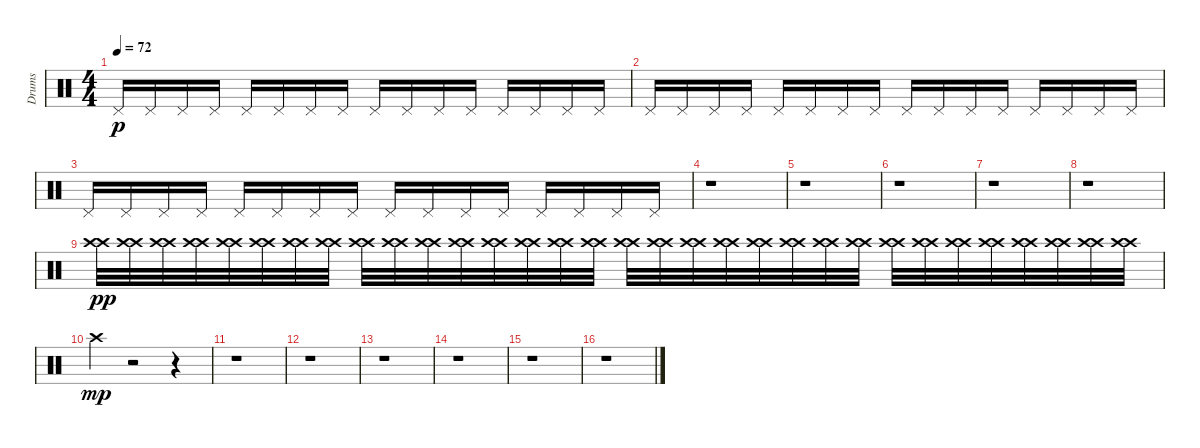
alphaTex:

\track ("Drums" "Drums") {instrument percussion}
\staff {score}
\articulation defaults
\ts (4 4)
\tempo 72
\clef neutral
\ks c "Pedal Hi-Hat (hit)".16{dy p} "Pedal Hi-Hat (hit)".16 "Pedal Hi-Hat (hit)".16 "Pedal Hi-Hat (hit)".16 "Pedal Hi-Hat (hit)".16 "Pedal Hi-Hat (hit)".16 "Pedal Hi-Hat (hit)".16 "Pedal Hi-Hat (hit)".16 "Pedal Hi-Hat (hit)".16 "Pedal Hi-Hat (hit)".16 "Pedal Hi-Hat (hit)".16 "Pedal Hi-Hat (hit)".16 "Pedal Hi-Hat (hit)".16 "Pedal Hi-Hat (hit)".16 "Pedal Hi-Hat (hit)".16 "Pedal Hi-Hat (hit)".16
|
"Pedal Hi-Hat (hit)".16 "Pedal Hi-Hat (hit)".16 "Pedal Hi-Hat (hit)".16 "Pedal Hi-Hat (hit)".16 "Pedal Hi-Hat (hit)".16 "Pedal Hi-Hat (hit)".16 "Pedal Hi-Hat (hit)".16 "Pedal Hi-Hat (hit)".16 "Pedal Hi-Hat (hit)".16 "Pedal Hi-Hat (hit)".16 "Pedal Hi-Hat (hit)".16 "Pedal Hi-Hat (hit)".16 "Pedal Hi-Hat (hit)".16 "Pedal Hi-Hat (hit)".16 "Pedal Hi-Hat (hit)".16 "Pedal Hi-Hat (hit)".16 |
"Pedal Hi-Hat (hit)".16 "Pedal Hi-Hat (hit)".16 "Pedal Hi-Hat (hit)".16 "Pedal Hi-Hat (hit)".16 "Pedal Hi-Hat (hit)".16 "Pedal Hi-Hat (hit)".16 "Pedal Hi-Hat (hit)".16 "Pedal Hi-Hat (hit)".16 "Pedal Hi-Hat (hit)".16 "Pedal Hi-Hat (hit)".16 "Pedal Hi-Hat (hit)".16 "Pedal Hi-Hat (hit)".16 "Pedal Hi-Hat (hit)".16 "Pedal Hi-Hat (hit)".16 "Pedal Hi-Hat (hit)".16 "Pedal Hi-Hat (hit)".16 |
r.1 |
r.1 |
r.1 |
r.1 |
r.1 |
("Crash high (hit)" "Crash high (hit)").32{dy pp} ("Crash high (hit)" "Crash high (hit)").32 ("Crash high (hit)" "Crash high (hit)").32 ("Crash high (hit)" "Crash high (hit)").32 ("Crash high (hit)" "Crash high (hit)").32 ("Crash high (hit)" "Crash high (hit)").32 ("Crash high (hit)" "Crash high (hit)").32 ("Crash high (hit)" "Crash high (hit)").32 ("Crash high (hit)" "Crash high (hit)").32 ("Crash high (hit)" "Crash high (hit)").32 ("Crash high (hit)" "Crash high (hit)").32 ("Crash high (hit)" "Crash high (hit)").32 ("Crash high (hit)" "Crash high (hit)").32 ("Crash high (hit)" "Crash high (hit)").32 ("Crash high (hit)" "Crash high (hit)").32 ("Crash high (hit)" "Crash high (hit)").32 ("Crash high (hit)" "Crash high (hit)").32 ("Crash high (hit)" "Crash high (hit)").32 ("Crash high (hit)" "Crash high (hit)").32 ("Crash high (hit)" "Crash high (hit)").32 ("Crash high (hit)" "Crash high (hit)").32 ("Crash high (hit)" "Crash high (hit)").32 ("Crash high (hit)" "Crash high (hit)").32 ("Crash high (hit)" "Crash high (hit)").32 ("Crash high (hit)" "Crash high (hit)").32 ("Crash high (hit)" "Crash high (hit)").32 ("Crash high (hit)" "Crash high (hit)").32 ("Crash high (hit)" "Crash high (hit)").32 ("Crash high (hit)" "Crash high (hit)").32 ("Crash high (hit)" "Crash high (hit)").32 ("Crash high (hit)" "Crash high (hit)").32 ("Crash high (hit)" "Crash high (hit)").32 |
"Crash high (hit)".4{dy mp} r.2 r.4 |
r.1 |
r.1 |
r.1 |
r.1 |
r.1 |
r.1
